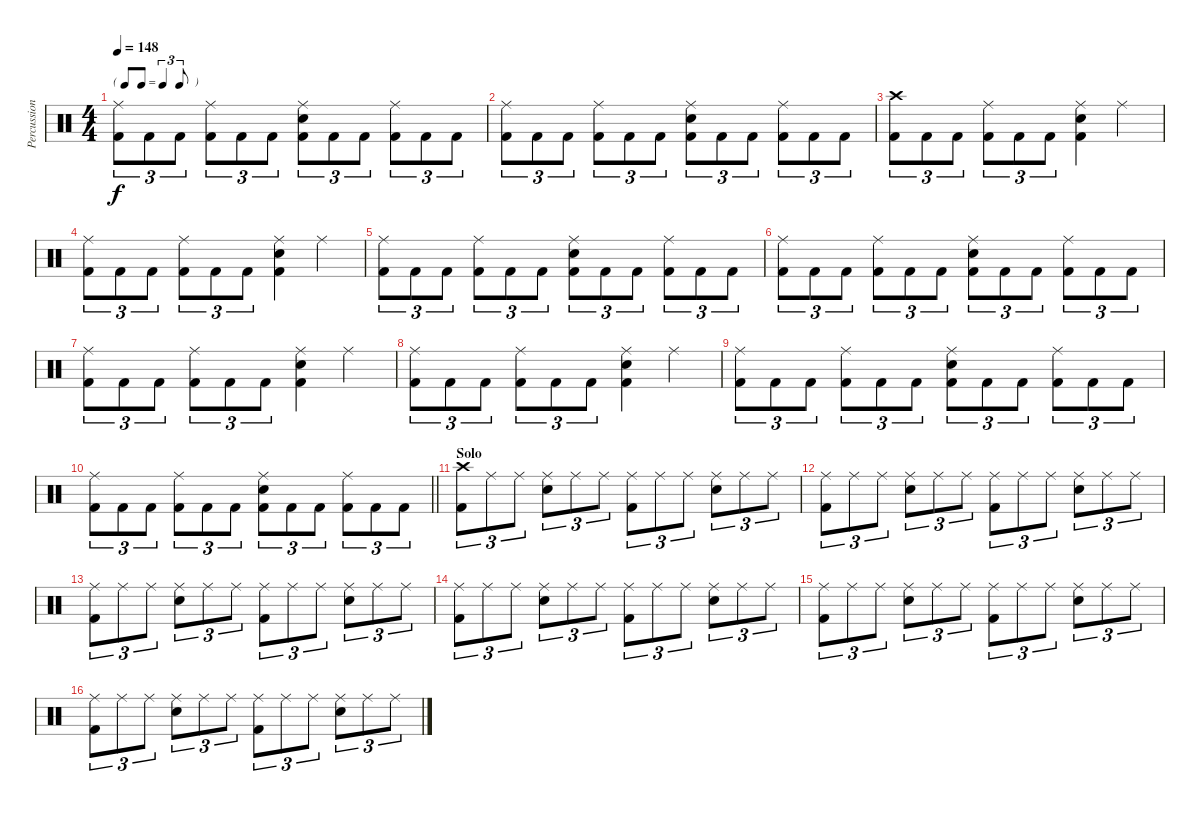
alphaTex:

\track ("Percussion" "Percussion") {instrument percussion}
\staff {score}
\articulation defaults
\ts (4 4)
\tf triplet8th
\tempo 148
\clef neutral
\ks c
("Ride (middle)" "Kick (hit) 2").8{tu (3 2) dy f} "Kick (hit) 2".8{tu (3 2)} "Kick (hit) 2".8{tu (3 2)} ("Ride (middle)" "Kick (hit) 2").8{tu (3 2)} "Kick (hit) 2".8{tu (3 2)} "Kick (hit) 2".8{tu (3 2)} ("Ride (middle)" "Snare (hit) 2" "Kick (hit) 2").8{tu (3 2)} "Kick (hit) 2".8{tu (3 2)} "Kick (hit) 2".8{tu (3 2)} ("Ride (middle)" "Kick (hit) 2").8{tu (3 2)} "Kick (hit) 2".8{tu (3 2)} "Kick (hit) 2".8{tu (3 2)} |
("Ride (middle)" "Kick (hit) 2").8{tu (3 2)} "Kick (hit) 2".8{tu (3 2)} "Kick (hit) 2".8{tu (3 2)} ("Ride (middle)" "Kick (hit) 2").8{tu (3 2)} "Kick (hit) 2".8{tu (3 2)} "Kick (hit) 2".8{tu (3 2)} ("Ride (middle)" "Snare (hit) 2" "Kick (hit) 2").8{tu (3 2)} "Kick (hit) 2".8{tu (3 2)} "Kick (hit) 2".8{tu (3 2)} ("Ride (middle)" "Kick (hit) 2").8{tu (3 2)} "Kick (hit) 2".8{tu (3 2)} "Kick (hit) 2".8{tu (3 2)} |
("Crash high (hit)" "Kick (hit) 2").8{tu (3 2)} "Kick (hit) 2".8{tu (3 2)} "Kick (hit) 2".8{tu (3 2)} ("Ride (middle)" "Kick (hit) 2").8{tu (3 2)} "Kick (hit) 2".8{tu (3 2)} "Kick (hit) 2".8{tu (3 2)} ("Ride (middle)" "Snare (hit) 2" "Kick (hit) 2").4 "Ride (middle)".4 |
("Ride (middle)" "Kick (hit) 2").8{tu (3 2)} "Kick (hit) 2".8{tu (3 2)} "Kick (hit) 2".8{tu (3 2)} ("Ride (middle)" "Kick (hit) 2").8{tu (3 2)} "Kick (hit) 2".8{tu (3 2)} "Kick (hit) 2".8{tu (3 2)} ("Ride (middle)" "Snare (hit) 2" "Kick (hit) 2").4 "Ride (middle)".4 |
("Ride (middle)" "Kick (hit) 2").8{tu (3 2)} "Kick (hit) 2".8{tu (3 2)} "Kick (hit) 2".8{tu (3 2)} ("Ride (middle)" "Kick (hit) 2").8{tu (3 2)} "Kick (hit) 2".8{tu (3 2)} "Kick (hit) 2".8{tu (3 2)} ("Ride (middle)" "Snare (hit) 2" "Kick (hit) 2").8{tu (3 2)} "Kick (hit) 2".8{tu (3 2)} "Kick (hit) 2".8{tu (3 2)} ("Ride (middle)" "Kick (hit) 2").8{tu (3 2)} "Kick (hit) 2".8{tu (3 2)} "Kick (hit) 2".8{tu (3 2)} |
("Ride (middle)" "Kick (hit) 2").8{tu (3 2)} "Kick (hit) 2".8{tu (3 2)} "Kick (hit) 2".8{tu (3 2)} ("Ride (middle)" "Kick (hit) 2").8{tu (3 2)} "Kick (hit) 2".8{tu (3 2)} "Kick (hit) 2".8{tu (3 2)} ("Ride (middle)" "Snare (hit) 2" "Kick (hit) 2").8{tu (3 2)} "Kick (hit) 2".8{tu (3 2)} "Kick (hit) 2".8{tu (3 2)} ("Ride (middle)" "Kick (hit) 2").8{tu (3 2)} "Kick (hit) 2".8{tu (3 2)} "Kick (hit) 2".8{tu (3 2)} |
("Ride (middle)" "Kick (hit) 2").8{tu (3 2)} "Kick (hit) 2".8{tu (3 2)} "Kick (hit) 2".8{tu (3 2)} ("Ride (middle)" "Kick (hit) 2").8{tu (3 2)} "Kick (hit) 2".8{tu (3 2)} "Kick (hit) 2".8{tu (3 2)} ("Ride (middle)" "Snare (hit) 2" "Kick (hit) 2").4 "Ride (middle)".4 |
("Ride (middle)" "Kick (hit) 2").8{tu (3 2)} "Kick (hit) 2".8{tu (3 2)} "Kick (hit) 2".8{tu (3 2)} ("Ride (middle)" "Kick (hit) 2").8{tu (3 2)} "Kick (hit) 2".8{tu (3 2)} "Kick (hit) 2".8{tu (3 2)} ("Ride (middle)" "Snare (hit) 2" "Kick (hit) 2").4 "Ride (middle)".4 |
("Ride (middle)" "Kick (hit) 2").8{tu (3 2)} "Kick (hit) 2".8{tu (3 2)} "Kick (hit) 2".8{tu (3 2)} ("Ride (middle)" "Kick (hit) 2").8{tu (3 2)} "Kick (hit) 2".8{tu (3 2)} "Kick (hit) 2".8{tu (3 2)} ("Ride (middle)" "Snare (hit) 2" "Kick (hit) 2").8{tu (3 2)} "Kick (hit) 2".8{tu (3 2)} "Kick (hit) 2".8{tu (3 2)} ("Ride (middle)" "Kick (hit) 2").8{tu (3 2)} "Kick (hit) 2".8{tu (3 2)} "Kick (hit) 2".8{tu (3 2)} |
\barLineRight lightlight
("Ride (middle)" "Kick (hit) 2").8{tu (3 2)} "Kick (hit) 2".8{tu (3 2)} "Kick (hit) 2".8{tu (3 2)} ("Ride (middle)" "Kick (hit) 2").8{tu (3 2)} "Kick (hit) 2".8{tu (3 2)} "Kick (hit) 2".8{tu (3 2)} ("Ride (middle)" "Snare (hit) 2" "Kick (hit) 2").8{tu (3 2)} "Kick (hit) 2".8{tu (3 2)} "Kick (hit) 2".8{tu (3 2)} ("Ride (middle)" "Kick (hit) 2").8{tu (3 2)} "Kick (hit) 2".8{tu (3 2)} "Kick (hit) 2".8{tu (3 2)} |
\section ("" "Solo")
("Crash high (hit)" "Kick (hit) 2").8{tu (3 2)} "Ride (middle)".8{tu (3 2)} "Ride (middle)".8{tu (3 2)} ("Ride (middle)" "Snare (hit) 2").8{tu (3 2)} "Ride (middle)".8{tu (3 2)} "Ride (middle)".8{tu (3 2)} ("Ride (middle)" "Kick (hit) 2").8{tu (3 2)} "Ride (middle)".8{tu (3 2)} "Ride (middle)".8{tu (3 2)} ("Ride (middle)" "Snare (hit) 2").8{tu (3 2)} "Ride (middle)".8{tu (3 2)} "Ride (middle)".8{tu (3 2)} |
("Ride (middle)" "Kick (hit) 2").8{tu (3 2)} "Ride (middle)".8{tu (3 2)} "Ride (middle)".8{tu (3 2)} ("Ride (middle)" "Snare (hit) 2").8{tu (3 2)} "Ride (middle)".8{tu (3 2)} "Ride (middle)".8{tu (3 2)} ("Ride (middle)" "Kick (hit) 2").8{tu (3 2)} "Ride (middle)".8{tu (3 2)} "Ride (middle)".8{tu (3 2)} ("Ride (middle)" "Snare (hit) 2").8{tu (3 2)} "Ride (middle)".8{tu (3 2)} "Ride (middle)".8{tu (3 2)} |
("Ride (middle)" "Kick (hit) 2").8{tu (3 2)} "Ride (middle)".8{tu (3 2)} "Ride (middle)".8{tu (3 2)} ("Ride (middle)" "Snare (hit) 2").8{tu (3 2)} "Ride (middle)".8{tu (3 2)} "Ride (middle)".8{tu (3 2)} ("Ride (middle)" "Kick (hit) 2").8{tu (3 2)} "Ride (middle)".8{tu (3 2)} "Ride (middle)".8{tu (3 2)} ("Ride (middle)" "Snare (hit) 2").8{tu (3 2)} "Ride (middle)".8{tu (3 2)} "Ride (middle)".8{tu (3 2)} |
("Ride (middle)" "Kick (hit) 2").8{tu (3 2)} "Ride (middle)".8{tu (3 2)} "Ride (middle)".8{tu (3 2)} ("Ride (middle)" "Snare (hit) 2").8{tu (3 2)} "Ride (middle)".8{tu (3 2)} "Ride (middle)".8{tu (3 2)} ("Ride (middle)" "Kick (hit) 2").8{tu (3 2)} "Ride (middle)".8{tu (3 2)} "Ride (middle)".8{tu (3 2)} ("Ride (middle)" "Snare (hit) 2").8{tu (3 2)} "Ride (middle)".8{tu (3 2)} "Ride (middle)".8{tu (3 2)} |
("Ride (middle)" "Kick (hit) 2").8{tu (3 2)} "Ride (middle)".8{tu (3 2)} "Ride (middle)".8{tu (3 2)} ("Ride (middle)" "Snare (hit) 2").8{tu (3 2)} "Ride (middle)".8{tu (3 2)} "Ride (middle)".8{tu (3 2)} ("Ride (middle)" "Kick (hit) 2").8{tu (3 2)} "Ride (middle)".8{tu (3 2)} "Ride (middle)".8{tu (3 2)} ("Ride (middle)" "Snare (hit) 2").8{tu (3 2)} "Ride (middle)".8{tu (3 2)} "Ride (middle)".8{tu (3 2)} |
("Ride (middle)" "Kick (hit) 2").8{tu (3 2)} "Ride (middle)".8{tu (3 2)} "Ride (middle)".8{tu (3 2)} ("Ride (middle)" "Snare (hit) 2").8{tu (3 2)} "Ride (middle)".8{tu (3 2)} "Ride (middle)".8{tu (3 2)} ("Ride (middle)" "Kick (hit) 2").8{tu (3 2)} "Ride (middle)".8{tu (3 2)} "Ride (middle)".8{tu (3 2)} ("Ride (middle)" "Snare (hit) 2").8{tu (3 2)} "Ride (middle)".8{tu (3 2)} "Ride (middle)".8{tu (3 2)}
